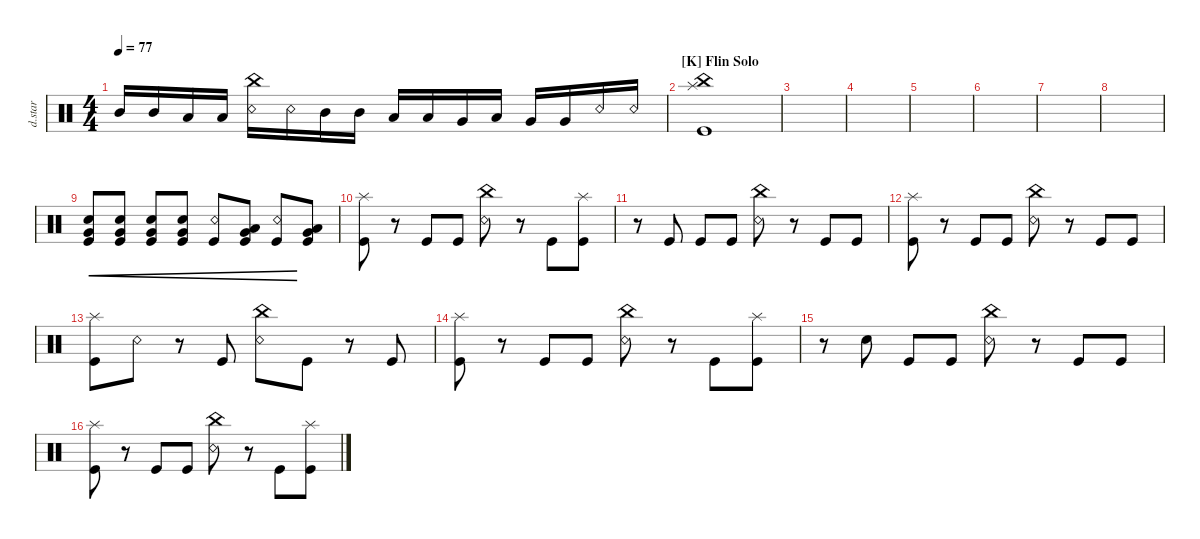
\defaultSystemsLayout 4
\hideDynamics
\bracketExtendMode nobrackets
\otherSystemsTrackNameOrientation horizontal
\track ("Drumkit Star" "d.star") {instrument percussion}
\staff {score}
\articulation defaults
\ts (4 4)
\tempo 77
\clef neutral
\ks c "Mid Tom (hit)".16{dy ff} "Mid Tom (hit)".16 "Low Tom (hit)".16 "Low Tom (hit)".16
("Snare (rim shot)" "China (hit)").16 "Snare (rim shot)".16 "Mid Tom (hit)".16 "Mid Tom (hit)".16 "Low Tom (hit)".16 "Low Tom (hit)".16 "Very Low Tom (hit)".16 "Low Tom (hit)".16 "Very Low Tom (hit)".16 "Very Low Tom (hit)".16 "Snare (rim shot)".16 "Snare (rim shot)".16 |
\section ("K" "Flin Solo")
("Kick (hit)" "China (hit)" "Splash (hit)").1 |
|
|
|
|
|
|
("Kick (hit)" "Snare (hit) 2" "Very Low Tom (hit)").8{cre dy p} ("Kick (hit)" "Snare (hit) 2" "Very Low Tom (hit)").8{cre} ("Kick (hit)" "Snare (hit) 2" "Very Low Tom (hit)").8{cre dy mp} ("Kick (hit)" "Snare (hit) 2" "Very Low Tom (hit)").8{cre} ("Kick (hit)" "Snare (rim shot)").8{cre dy mf} ("Kick (hit)" "Very Low Tom (hit)" "Low Tom (hit)").8{cre dy f} ("Kick (hit)" "Snare (rim shot)").8{cre} ("Kick (hit)" "Very Low Tom (hit)" "Low Tom (hit)").8 |
("Kick (hit)" "Splash (hit)").8{dy ff} r.8 "Kick (hit)".8 "Kick (hit)".8 ("Snare (rim shot)" "China (hit)").8 r.8 "Kick (hit)".8 ("Kick (hit)" "Splash (hit)").8 |
r.8 "Kick (hit)".8 "Kick (hit)".8 "Kick (hit)".8 ("Snare (rim shot)" "China (hit)").8 r.8 "Kick (hit)".8 "Kick (hit)".8 |
("Kick (hit)" "Splash (hit)").8 r.8 "Kick (hit)".8 "Kick (hit)".8 ("Snare (rim shot)" "China (hit)").8 r.8 "Kick (hit)".8 "Kick (hit)".8 |
("Kick (hit)" "Splash (hit)").8 "Snare (rim shot)".8 r.8 "Kick (hit)".8 ("Snare (rim shot)" "China (hit)").8 "Kick (hit)".8 r.8 "Kick (hit)".8 |
("Kick (hit)" "Splash (hit)").8 r.8 "Kick (hit)".8 "Kick (hit)".8 ("Snare (rim shot)" "China (hit)").8 r.8 "Kick (hit)".8 ("Kick (hit)" "Splash (hit)").8 |
r.8 "Snare (hit) 2".8{dy mp} "Kick (hit)".8{dy ff} "Kick (hit)".8 ("Snare (rim shot)" "China (hit)").8 r.8 "Kick (hit)".8 "Kick (hit)".8 |
("Kick (hit)" "Splash (hit)").8 r.8 "Kick (hit)".8 "Kick (hit)".8 ("Snare (rim shot)" "China (hit)").8 r.8 "Kick (hit)".8 ("Kick (hit)" "Splash (hit)").8
